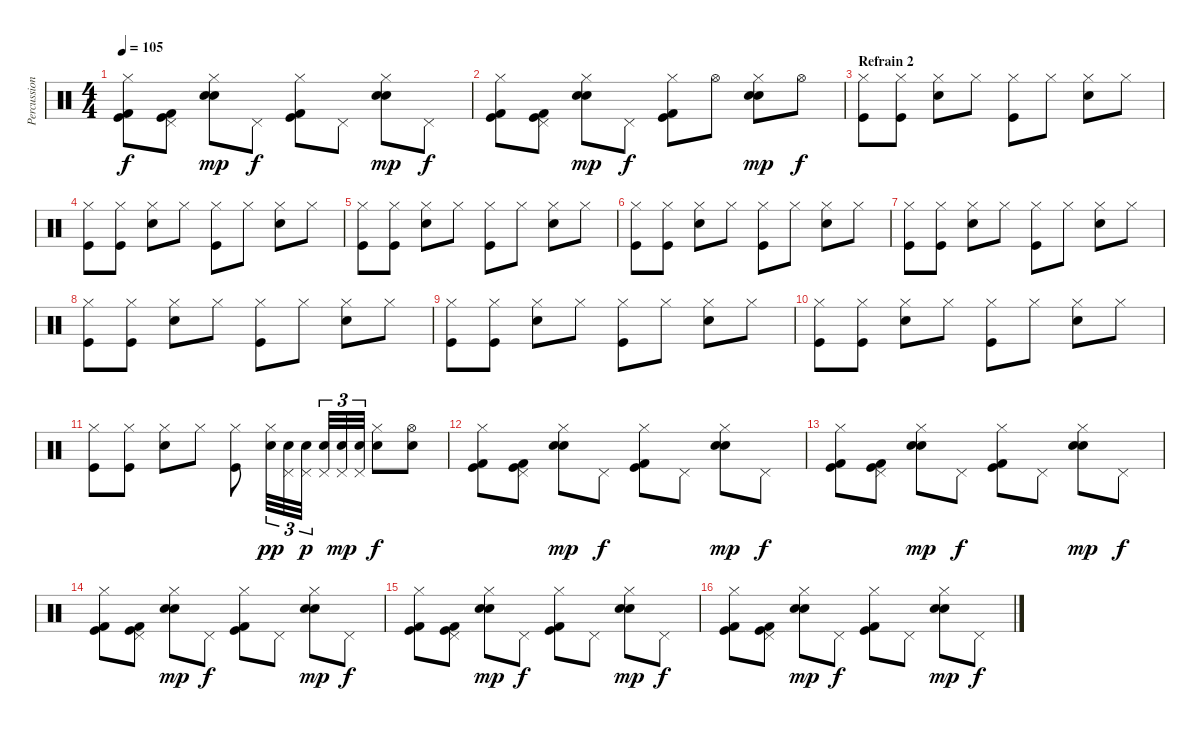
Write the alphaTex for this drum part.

\track ("Percussions" "Percussion") {instrument percussion}
\staff {score}
\articulation defaults
\ts (4 4)
\tempo 105
\clef neutral
\ks c
("Hi-Hat (closed)" "Kick (hit) 2" "Kick (hit)").8{dy f} ("Pedal Hi-Hat (hit)" "Kick (hit) 2" "Kick (hit)").8 ("Hi-Hat (closed)" "Electric Snare (hit)" "Snare (hit) 2").8{dy mp} "Pedal Hi-Hat (hit)".8{dy f} ("Hi-Hat (closed)" "Kick (hit) 2" "Kick (hit)").8 "Pedal Hi-Hat (hit)".8 ("Hi-Hat (closed)" "Electric Snare (hit)" "Snare (hit) 2").8{dy mp} "Pedal Hi-Hat (hit)".8{dy f} |
("Hi-Hat (closed)" "Kick (hit) 2" "Kick (hit)").8 ("Pedal Hi-Hat (hit)" "Kick (hit) 2" "Kick (hit)").8 ("Hi-Hat (closed)" "Electric Snare (hit)" "Snare (hit) 2").8{dy mp} "Pedal Hi-Hat (hit)".8{dy f} ("Hi-Hat (closed)" "Kick (hit) 2" "Kick (hit)").8 "Hi-Hat (open)".8 ("Hi-Hat (closed)" "Electric Snare (hit)" "Snare (hit) 2").8{dy mp} "Hi-Hat (open)".8{dy f} |
\section ("" "Refrain 2")
("Hi-Hat (closed)" "Kick (hit)").8 ("Hi-Hat (closed)" "Kick (hit)").8 ("Hi-Hat (closed)" "Electric Snare (hit)").8 "Hi-Hat (closed)".8 ("Hi-Hat (closed)" "Kick (hit)").8 "Hi-Hat (closed)".8 ("Hi-Hat (closed)" "Electric Snare (hit)").8 "Hi-Hat (closed)".8 |
("Hi-Hat (closed)" "Kick (hit)").8 ("Hi-Hat (closed)" "Kick (hit)").8 ("Hi-Hat (closed)" "Electric Snare (hit)").8 "Hi-Hat (closed)".8 ("Hi-Hat (closed)" "Kick (hit)").8 "Hi-Hat (closed)".8 ("Hi-Hat (closed)" "Electric Snare (hit)").8 "Hi-Hat (closed)".8 |
("Hi-Hat (closed)" "Kick (hit)").8 ("Hi-Hat (closed)" "Kick (hit)").8 ("Hi-Hat (closed)" "Electric Snare (hit)").8 "Hi-Hat (closed)".8 ("Hi-Hat (closed)" "Kick (hit)").8 "Hi-Hat (closed)".8 ("Hi-Hat (closed)" "Electric Snare (hit)").8 "Hi-Hat (closed)".8 |
("Hi-Hat (closed)" "Kick (hit)").8 ("Hi-Hat (closed)" "Kick (hit)").8 ("Hi-Hat (closed)" "Electric Snare (hit)").8 "Hi-Hat (closed)".8 ("Hi-Hat (closed)" "Kick (hit)").8 "Hi-Hat (closed)".8 ("Hi-Hat (closed)" "Electric Snare (hit)").8 "Hi-Hat (closed)".8 |
("Hi-Hat (closed)" "Kick (hit)").8 ("Hi-Hat (closed)" "Kick (hit)").8 ("Hi-Hat (closed)" "Electric Snare (hit)").8 "Hi-Hat (closed)".8 ("Hi-Hat (closed)" "Kick (hit)").8 "Hi-Hat (closed)".8 ("Hi-Hat (closed)" "Electric Snare (hit)").8 "Hi-Hat (closed)".8 |
("Hi-Hat (closed)" "Kick (hit)").8 ("Hi-Hat (closed)" "Kick (hit)").8 ("Hi-Hat (closed)" "Electric Snare (hit)").8 "Hi-Hat (closed)".8 ("Hi-Hat (closed)" "Kick (hit)").8 "Hi-Hat (closed)".8 ("Hi-Hat (closed)" "Electric Snare (hit)").8 "Hi-Hat (closed)".8 |
("Hi-Hat (closed)" "Kick (hit)").8 ("Hi-Hat (closed)" "Kick (hit)").8 ("Hi-Hat (closed)" "Electric Snare (hit)").8 "Hi-Hat (closed)".8 ("Hi-Hat (closed)" "Kick (hit)").8 "Hi-Hat (closed)".8 ("Hi-Hat (closed)" "Electric Snare (hit)").8 "Hi-Hat (closed)".8 |
("Hi-Hat (closed)" "Kick (hit)").8 ("Hi-Hat (closed)" "Kick (hit)").8 ("Hi-Hat (closed)" "Electric Snare (hit)").8 "Hi-Hat (closed)".8 ("Hi-Hat (closed)" "Kick (hit)").8 "Hi-Hat (closed)".8 ("Hi-Hat (closed)" "Electric Snare (hit)").8 "Hi-Hat (closed)".8 |
("Hi-Hat (closed)" "Kick (hit)").8 ("Hi-Hat (closed)" "Kick (hit)").8 ("Hi-Hat (closed)" "Electric Snare (hit)").8 "Hi-Hat (closed)".8 ("Hi-Hat (closed)" "Kick (hit)").8 ("Hi-Hat (closed)" "Electric Snare (hit)").32{tu (3 2) dy pp} ("Pedal Hi-Hat (hit)" "Electric Snare (hit)").32{tu (3 2)} ("Pedal Hi-Hat (hit)" "Electric Snare (hit)").32{tu (3 2) dy p} ("Pedal Hi-Hat (hit)" "Electric Snare (hit)").32{tu (3 2)} ("Pedal Hi-Hat (hit)" "Electric Snare (hit)").32{tu (3 2) dy mp} ("Pedal Hi-Hat (hit)" "Electric Snare (hit)").32{tu (3 2)} ("Hi-Hat (closed)" "Electric Snare (hit)").8{dy f} ("Hi-Hat (open)" "Electric Snare (hit)").8 |
("Hi-Hat (closed)" "Kick (hit) 2" "Kick (hit)").8 ("Pedal Hi-Hat (hit)" "Kick (hit) 2" "Kick (hit)").8 ("Hi-Hat (closed)" "Electric Snare (hit)" "Snare (hit) 2").8{dy mp} "Pedal Hi-Hat (hit)".8{dy f} ("Hi-Hat (closed)" "Kick (hit) 2" "Kick (hit)").8 "Pedal Hi-Hat (hit)".8 ("Hi-Hat (closed)" "Electric Snare (hit)" "Snare (hit) 2").8{dy mp} "Pedal Hi-Hat (hit)".8{dy f} |
("Hi-Hat (closed)" "Kick (hit) 2" "Kick (hit)").8 ("Pedal Hi-Hat (hit)" "Kick (hit) 2" "Kick (hit)").8 ("Hi-Hat (closed)" "Electric Snare (hit)" "Snare (hit) 2").8{dy mp} "Pedal Hi-Hat (hit)".8{dy f} ("Hi-Hat (closed)" "Kick (hit) 2" "Kick (hit)").8 "Pedal Hi-Hat (hit)".8 ("Hi-Hat (closed)" "Electric Snare (hit)" "Snare (hit) 2").8{dy mp} "Pedal Hi-Hat (hit)".8{dy f} |
("Hi-Hat (closed)" "Kick (hit) 2" "Kick (hit)").8 ("Pedal Hi-Hat (hit)" "Kick (hit) 2" "Kick (hit)").8 ("Hi-Hat (closed)" "Electric Snare (hit)" "Snare (hit) 2").8{dy mp} "Pedal Hi-Hat (hit)".8{dy f} ("Hi-Hat (closed)" "Kick (hit) 2" "Kick (hit)").8 "Pedal Hi-Hat (hit)".8 ("Hi-Hat (closed)" "Electric Snare (hit)" "Snare (hit) 2").8{dy mp} "Pedal Hi-Hat (hit)".8{dy f} |
("Hi-Hat (closed)" "Kick (hit) 2" "Kick (hit)").8 ("Pedal Hi-Hat (hit)" "Kick (hit) 2" "Kick (hit)").8 ("Hi-Hat (closed)" "Electric Snare (hit)" "Snare (hit) 2").8{dy mp} "Pedal Hi-Hat (hit)".8{dy f} ("Hi-Hat (closed)" "Kick (hit) 2" "Kick (hit)").8 "Pedal Hi-Hat (hit)".8 ("Hi-Hat (closed)" "Electric Snare (hit)" "Snare (hit) 2").8{dy mp} "Pedal Hi-Hat (hit)".8{dy f} |
("Hi-Hat (closed)" "Kick (hit) 2" "Kick (hit)").8 ("Pedal Hi-Hat (hit)" "Kick (hit) 2" "Kick (hit)").8 ("Hi-Hat (closed)" "Electric Snare (hit)" "Snare (hit) 2").8{dy mp} "Pedal Hi-Hat (hit)".8{dy f} ("Hi-Hat (closed)" "Kick (hit) 2" "Kick (hit)").8 "Pedal Hi-Hat (hit)".8 ("Hi-Hat (closed)" "Electric Snare (hit)" "Snare (hit) 2").8{dy mp} "Pedal Hi-Hat (hit)".8{dy f}
